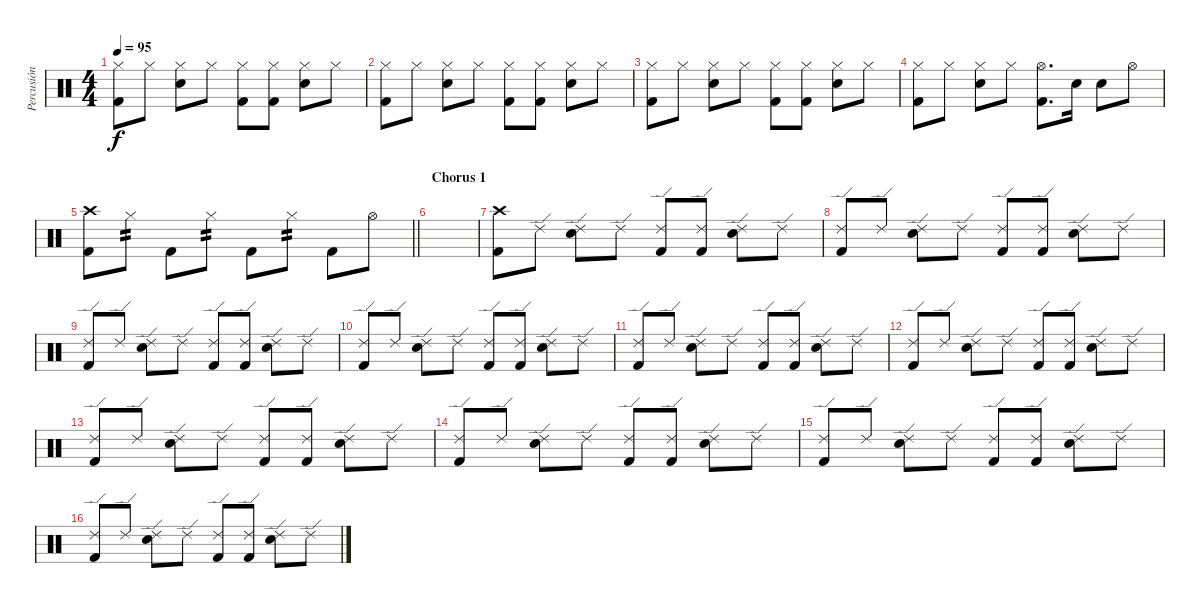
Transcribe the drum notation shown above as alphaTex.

\track ("Percusión" "Percusión") {instrument percussion}
\staff {score}
\articulation defaults
\ts (4 4)
\tempo 95
\clef neutral
\ks c
("Hi-Hat (closed)" "Kick (hit) 2").8{dy f} "Hi-Hat (closed)".8 ("Hi-Hat (closed)" "Snare (hit) 2").8 "Hi-Hat (closed)".8 ("Hi-Hat (closed)" "Kick (hit) 2").8 ("Hi-Hat (closed)" "Kick (hit) 2").8 ("Hi-Hat (closed)" "Snare (hit) 2").8 "Hi-Hat (closed)".8 |
("Hi-Hat (closed)" "Kick (hit) 2").8 "Hi-Hat (closed)".8 ("Hi-Hat (closed)" "Snare (hit) 2").8 "Hi-Hat (closed)".8 ("Hi-Hat (closed)" "Kick (hit) 2").8 ("Hi-Hat (closed)" "Kick (hit) 2").8 ("Hi-Hat (closed)" "Snare (hit) 2").8 "Hi-Hat (closed)".8 |
("Hi-Hat (closed)" "Kick (hit) 2").8 "Hi-Hat (closed)".8 ("Hi-Hat (closed)" "Snare (hit) 2").8 "Hi-Hat (closed)".8 ("Hi-Hat (closed)" "Kick (hit) 2").8 ("Hi-Hat (closed)" "Kick (hit) 2").8 ("Hi-Hat (closed)" "Snare (hit) 2").8 "Hi-Hat (closed)".8 |
("Hi-Hat (closed)" "Kick (hit) 2").8 "Hi-Hat (closed)".8 ("Hi-Hat (closed)" "Snare (hit) 2").8 "Hi-Hat (closed)".8 ("Hi-Hat (open)" "Kick (hit) 2").8{d} "Snare (hit) 2".16 "Snare (hit) 2".8 "Hi-Hat (open)".8 |
\barLineRight lightlight
("Crash high (hit)" "Kick (hit) 2").8 "Hi-Hat (closed)".8{tp 2} "Kick (hit) 2".8 "Hi-Hat (closed)".8{tp 2} "Kick (hit) 2".8 "Hi-Hat (closed)".8{tp 2} "Kick (hit) 2".8 "Hi-Hat (open)".8 |
\section ("" "Chorus 1")
|
("Crash high (hit)" "Kick (hit) 2").8 "Ride (edge) 2".8 ("Ride (edge) 2" "Electric Snare (hit)").8 "Ride (edge) 2".8 ("Ride (edge) 2" "Kick (hit) 2").8 ("Ride (edge) 2" "Kick (hit) 2").8 ("Ride (edge) 2" "Electric Snare (hit)").8 "Ride (edge) 2".8 |
("Ride (edge) 2" "Kick (hit) 2").8 "Ride (edge) 2".8 ("Ride (edge) 2" "Electric Snare (hit)").8 "Ride (edge) 2".8 ("Ride (edge) 2" "Kick (hit) 2").8 ("Ride (edge) 2" "Kick (hit) 2").8 ("Ride (edge) 2" "Electric Snare (hit)").8 "Ride (edge) 2".8 |
("Ride (edge) 2" "Kick (hit) 2").8 "Ride (edge) 2".8 ("Ride (edge) 2" "Electric Snare (hit)").8 "Ride (edge) 2".8 ("Ride (edge) 2" "Kick (hit) 2").8 ("Ride (edge) 2" "Kick (hit) 2").8 ("Ride (edge) 2" "Electric Snare (hit)").8 "Ride (edge) 2".8 |
("Ride (edge) 2" "Kick (hit) 2").8 "Ride (edge) 2".8 ("Ride (edge) 2" "Electric Snare (hit)").8 "Ride (edge) 2".8 ("Ride (edge) 2" "Kick (hit) 2").8 ("Ride (edge) 2" "Kick (hit) 2").8 ("Ride (edge) 2" "Electric Snare (hit)").8 "Ride (edge) 2".8 |
("Ride (edge) 2" "Kick (hit) 2").8 "Ride (edge) 2".8 ("Ride (edge) 2" "Electric Snare (hit)").8 "Ride (edge) 2".8 ("Ride (edge) 2" "Kick (hit) 2").8 ("Ride (edge) 2" "Kick (hit) 2").8 ("Ride (edge) 2" "Electric Snare (hit)").8 "Ride (edge) 2".8 |
("Ride (edge) 2" "Kick (hit) 2").8 "Ride (edge) 2".8 ("Ride (edge) 2" "Electric Snare (hit)").8 "Ride (edge) 2".8 ("Ride (edge) 2" "Kick (hit) 2").8 ("Ride (edge) 2" "Kick (hit) 2").8 ("Ride (edge) 2" "Electric Snare (hit)").8 "Ride (edge) 2".8 |
("Ride (edge) 2" "Kick (hit) 2").8 "Ride (edge) 2".8 ("Ride (edge) 2" "Electric Snare (hit)").8 "Ride (edge) 2".8 ("Ride (edge) 2" "Kick (hit) 2").8 ("Ride (edge) 2" "Kick (hit) 2").8 ("Ride (edge) 2" "Electric Snare (hit)").8 "Ride (edge) 2".8 |
("Ride (edge) 2" "Kick (hit) 2").8 "Ride (edge) 2".8 ("Ride (edge) 2" "Electric Snare (hit)").8 "Ride (edge) 2".8 ("Ride (edge) 2" "Kick (hit) 2").8 ("Ride (edge) 2" "Kick (hit) 2").8 ("Ride (edge) 2" "Electric Snare (hit)").8 "Ride (edge) 2".8 |
("Ride (edge) 2" "Kick (hit) 2").8 "Ride (edge) 2".8 ("Ride (edge) 2" "Electric Snare (hit)").8 "Ride (edge) 2".8 ("Ride (edge) 2" "Kick (hit) 2").8 ("Ride (edge) 2" "Kick (hit) 2").8 ("Ride (edge) 2" "Electric Snare (hit)").8 "Ride (edge) 2".8 |
("Ride (edge) 2" "Kick (hit) 2").8 "Ride (edge) 2".8 ("Ride (edge) 2" "Electric Snare (hit)").8 "Ride (edge) 2".8 ("Ride (edge) 2" "Kick (hit) 2").8 ("Ride (edge) 2" "Kick (hit) 2").8 ("Ride (edge) 2" "Electric Snare (hit)").8 "Ride (edge) 2".8
